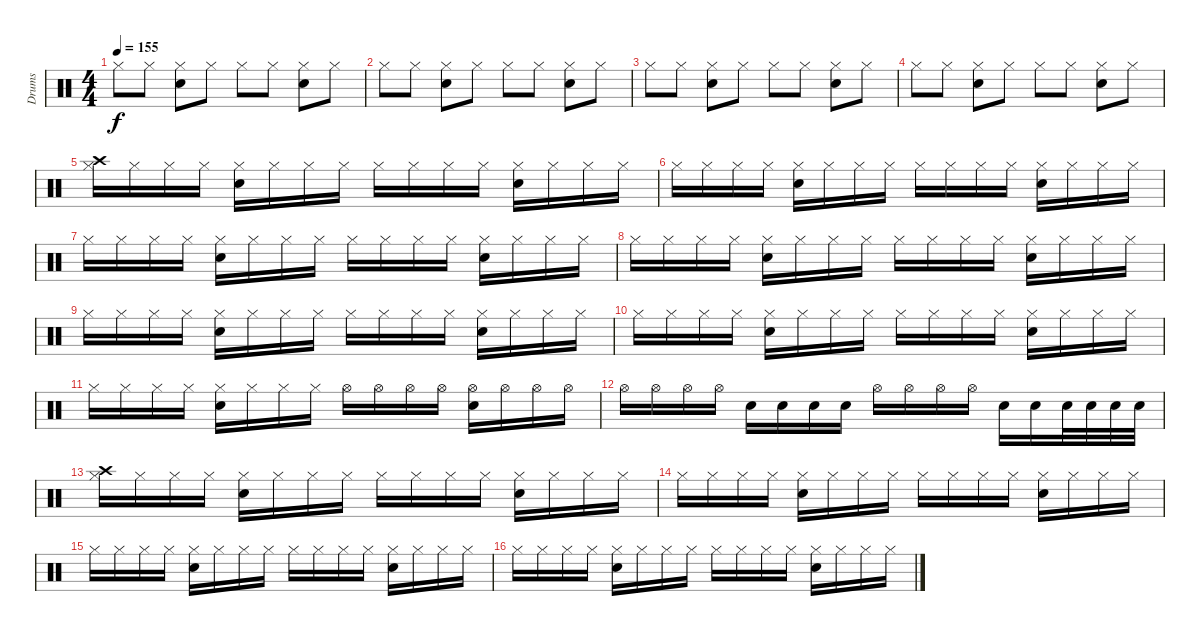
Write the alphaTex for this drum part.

\track ("Drums" "Drums") {instrument percussion}
\staff {score}
\articulation defaults
\ts (4 4)
\tempo 155
\clef neutral
\ks c "Hi-Hat (closed)".8{dy f} "Hi-Hat (closed)".8
("Hi-Hat (closed)" "Electric Snare (hit)").8 "Hi-Hat (closed)".8 "Hi-Hat (closed)".8 "Hi-Hat (closed)".8 ("Hi-Hat (closed)" "Electric Snare (hit)").8 "Hi-Hat (closed)".8 |
"Hi-Hat (closed)".8 "Hi-Hat (closed)".8 ("Hi-Hat (closed)" "Electric Snare (hit)").8 "Hi-Hat (closed)".8 "Hi-Hat (closed)".8 "Hi-Hat (closed)".8 ("Hi-Hat (closed)" "Electric Snare (hit)").8 "Hi-Hat (closed)".8 |
"Hi-Hat (closed)".8 "Hi-Hat (closed)".8 ("Hi-Hat (closed)" "Electric Snare (hit)").8 "Hi-Hat (closed)".8 "Hi-Hat (closed)".8 "Hi-Hat (closed)".8 ("Hi-Hat (closed)" "Electric Snare (hit)").8 "Hi-Hat (closed)".8 |
"Hi-Hat (closed)".8 "Hi-Hat (closed)".8 ("Hi-Hat (closed)" "Electric Snare (hit)").8 "Hi-Hat (closed)".8 "Hi-Hat (closed)".8 "Hi-Hat (closed)".8 ("Hi-Hat (closed)" "Electric Snare (hit)").8 "Hi-Hat (closed)".8 |
("Hi-Hat (closed)" "Crash high (hit)").16 "Hi-Hat (closed)".16 "Hi-Hat (closed)".16 "Hi-Hat (closed)".16 ("Hi-Hat (closed)" "Electric Snare (hit)").16 "Hi-Hat (closed)".16 "Hi-Hat (closed)".16 "Hi-Hat (closed)".16 "Hi-Hat (closed)".16 "Hi-Hat (closed)".16 "Hi-Hat (closed)".16 "Hi-Hat (closed)".16 ("Hi-Hat (closed)" "Electric Snare (hit)").16 "Hi-Hat (closed)".16 "Hi-Hat (closed)".16 "Hi-Hat (closed)".16 |
"Hi-Hat (closed)".16 "Hi-Hat (closed)".16 "Hi-Hat (closed)".16 "Hi-Hat (closed)".16 ("Hi-Hat (closed)" "Electric Snare (hit)").16 "Hi-Hat (closed)".16 "Hi-Hat (closed)".16 "Hi-Hat (closed)".16 "Hi-Hat (closed)".16 "Hi-Hat (closed)".16 "Hi-Hat (closed)".16 "Hi-Hat (closed)".16 ("Hi-Hat (closed)" "Electric Snare (hit)").16 "Hi-Hat (closed)".16 "Hi-Hat (closed)".16 "Hi-Hat (closed)".16 |
"Hi-Hat (closed)".16 "Hi-Hat (closed)".16 "Hi-Hat (closed)".16 "Hi-Hat (closed)".16 ("Hi-Hat (closed)" "Electric Snare (hit)").16 "Hi-Hat (closed)".16 "Hi-Hat (closed)".16 "Hi-Hat (closed)".16 "Hi-Hat (closed)".16 "Hi-Hat (closed)".16 "Hi-Hat (closed)".16 "Hi-Hat (closed)".16 ("Hi-Hat (closed)" "Electric Snare (hit)").16 "Hi-Hat (closed)".16 "Hi-Hat (closed)".16 "Hi-Hat (closed)".16 |
"Hi-Hat (closed)".16 "Hi-Hat (closed)".16 "Hi-Hat (closed)".16 "Hi-Hat (closed)".16 ("Hi-Hat (closed)" "Electric Snare (hit)").16 "Hi-Hat (closed)".16 "Hi-Hat (closed)".16 "Hi-Hat (closed)".16 "Hi-Hat (closed)".16 "Hi-Hat (closed)".16 "Hi-Hat (closed)".16 "Hi-Hat (closed)".16 ("Hi-Hat (closed)" "Electric Snare (hit)").16 "Hi-Hat (closed)".16 "Hi-Hat (closed)".16 "Hi-Hat (closed)".16 |
"Hi-Hat (closed)".16 "Hi-Hat (closed)".16 "Hi-Hat (closed)".16 "Hi-Hat (closed)".16 ("Hi-Hat (closed)" "Electric Snare (hit)").16 "Hi-Hat (closed)".16 "Hi-Hat (closed)".16 "Hi-Hat (closed)".16 "Hi-Hat (closed)".16 "Hi-Hat (closed)".16 "Hi-Hat (closed)".16 "Hi-Hat (closed)".16 ("Hi-Hat (closed)" "Electric Snare (hit)").16 "Hi-Hat (closed)".16 "Hi-Hat (closed)".16 "Hi-Hat (closed)".16 |
"Hi-Hat (closed)".16 "Hi-Hat (closed)".16 "Hi-Hat (closed)".16 "Hi-Hat (closed)".16 ("Hi-Hat (closed)" "Electric Snare (hit)").16 "Hi-Hat (closed)".16 "Hi-Hat (closed)".16 "Hi-Hat (closed)".16 "Hi-Hat (closed)".16 "Hi-Hat (closed)".16 "Hi-Hat (closed)".16 "Hi-Hat (closed)".16 ("Hi-Hat (closed)" "Electric Snare (hit)").16 "Hi-Hat (closed)".16 "Hi-Hat (closed)".16 "Hi-Hat (closed)".16 |
"Hi-Hat (closed)".16 "Hi-Hat (closed)".16 "Hi-Hat (closed)".16 "Hi-Hat (closed)".16 ("Hi-Hat (closed)" "Electric Snare (hit)").16 "Hi-Hat (closed)".16 "Hi-Hat (closed)".16 "Hi-Hat (closed)".16 "Hi-Hat (open)".16 "Hi-Hat (open)".16 "Hi-Hat (open)".16 "Hi-Hat (open)".16 ("Hi-Hat (open)" "Electric Snare (hit)").16 "Hi-Hat (open)".16 "Hi-Hat (open)".16 "Hi-Hat (open)".16 |
"Hi-Hat (open)".16 "Hi-Hat (open)".16 "Hi-Hat (open)".16 "Hi-Hat (open)".16 "Electric Snare (hit)".16 "Electric Snare (hit)".16 "Electric Snare (hit)".16 "Electric Snare (hit)".16 "Hi-Hat (open)".16 "Hi-Hat (open)".16 "Hi-Hat (open)".16 "Hi-Hat (open)".16 "Electric Snare (hit)".16 "Electric Snare (hit)".16 "Electric Snare (hit)".32 "Electric Snare (hit)".32 "Electric Snare (hit)".32 "Electric Snare (hit)".32 |
("Hi-Hat (closed)" "Crash high (hit)").16 "Hi-Hat (closed)".16 "Hi-Hat (closed)".16 "Hi-Hat (closed)".16 ("Hi-Hat (closed)" "Electric Snare (hit)").16 "Hi-Hat (closed)".16 "Hi-Hat (closed)".16 "Hi-Hat (closed)".16 "Hi-Hat (closed)".16 "Hi-Hat (closed)".16 "Hi-Hat (closed)".16 "Hi-Hat (closed)".16 ("Hi-Hat (closed)" "Electric Snare (hit)").16 "Hi-Hat (closed)".16 "Hi-Hat (closed)".16 "Hi-Hat (closed)".16 |
"Hi-Hat (closed)".16 "Hi-Hat (closed)".16 "Hi-Hat (closed)".16 "Hi-Hat (closed)".16 ("Hi-Hat (closed)" "Electric Snare (hit)").16 "Hi-Hat (closed)".16 "Hi-Hat (closed)".16 "Hi-Hat (closed)".16 "Hi-Hat (closed)".16 "Hi-Hat (closed)".16 "Hi-Hat (closed)".16 "Hi-Hat (closed)".16 ("Hi-Hat (closed)" "Electric Snare (hit)").16 "Hi-Hat (closed)".16 "Hi-Hat (closed)".16 "Hi-Hat (closed)".16 |
"Hi-Hat (closed)".16 "Hi-Hat (closed)".16 "Hi-Hat (closed)".16 "Hi-Hat (closed)".16 ("Hi-Hat (closed)" "Electric Snare (hit)").16 "Hi-Hat (closed)".16 "Hi-Hat (closed)".16 "Hi-Hat (closed)".16 "Hi-Hat (closed)".16 "Hi-Hat (closed)".16 "Hi-Hat (closed)".16 "Hi-Hat (closed)".16 ("Hi-Hat (closed)" "Electric Snare (hit)").16 "Hi-Hat (closed)".16 "Hi-Hat (closed)".16 "Hi-Hat (closed)".16 |
"Hi-Hat (closed)".16 "Hi-Hat (closed)".16 "Hi-Hat (closed)".16 "Hi-Hat (closed)".16 ("Hi-Hat (closed)" "Electric Snare (hit)").16 "Hi-Hat (closed)".16 "Hi-Hat (closed)".16 "Hi-Hat (closed)".16 "Hi-Hat (closed)".16 "Hi-Hat (closed)".16 "Hi-Hat (closed)".16 "Hi-Hat (closed)".16 ("Hi-Hat (closed)" "Electric Snare (hit)").16 "Hi-Hat (closed)".16 "Hi-Hat (closed)".16 "Hi-Hat (closed)".16
